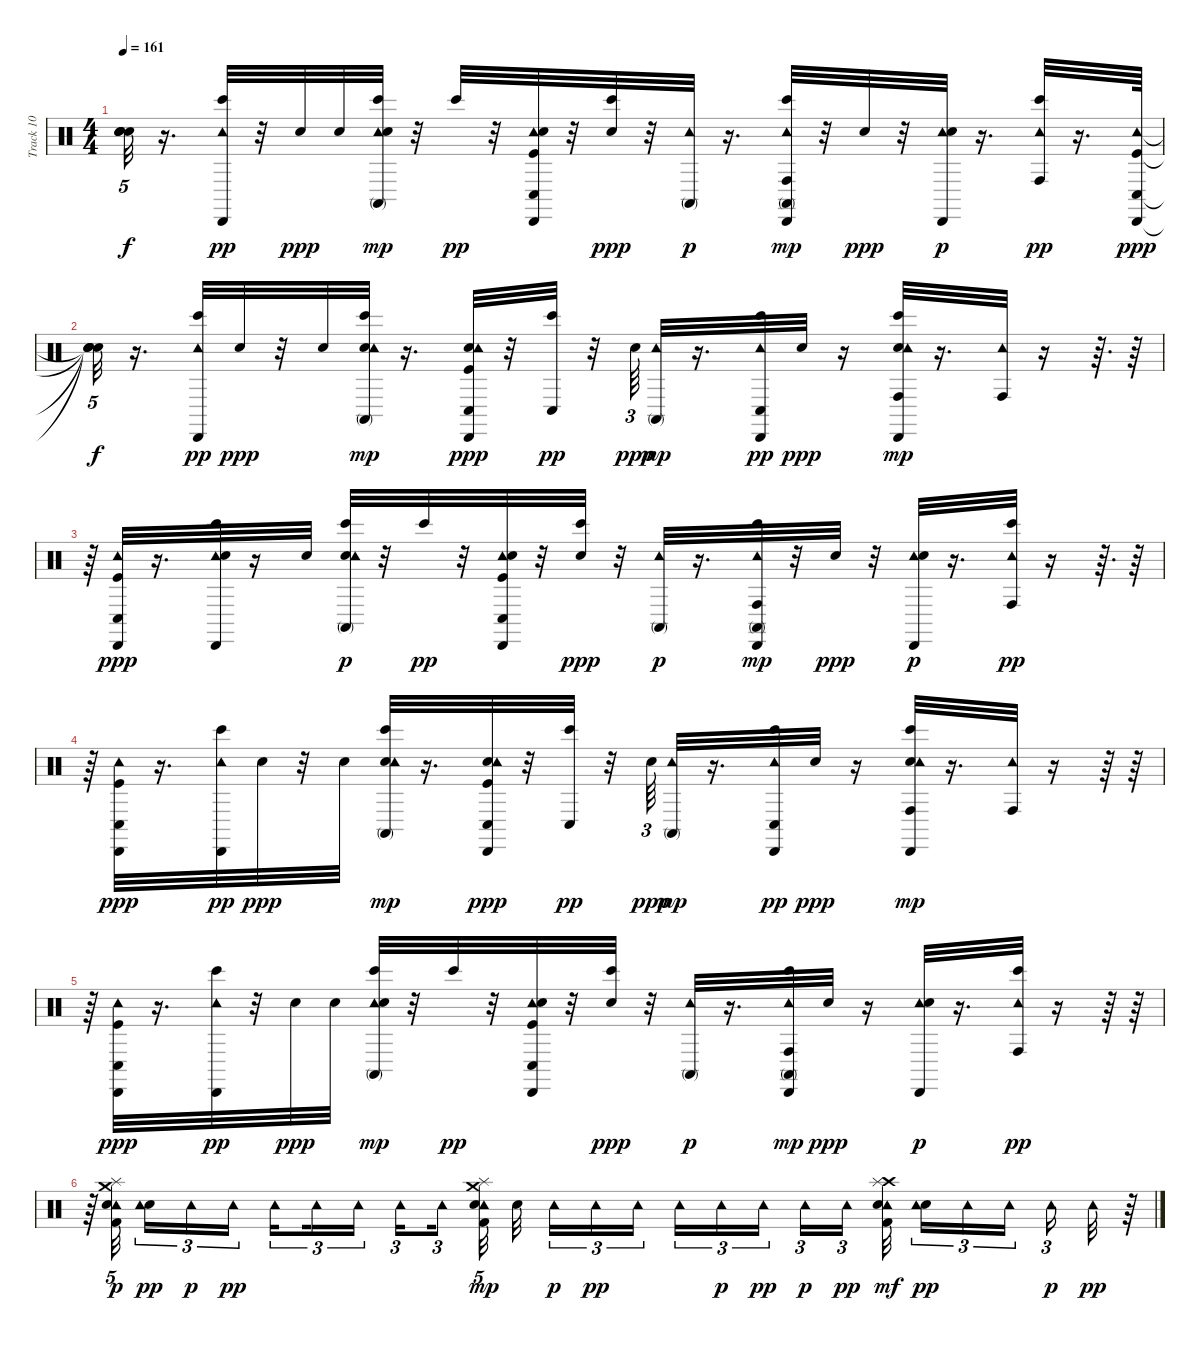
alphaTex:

\track ("Track 10" "Track 10") {instrument percussion}
\staff {score}
\articulation defaults
\ts (4 4)
\tempo 161
\clef neutral
\ks c
("Snare (hit)"{t} "Snare (hit)"{t} "Snare (hit)"{t} "Snare (hit)"{t}).32{tu (5 4) dy f} r.16{d} ("Tambourine (hit)" "Cabasa (hit)" "Bongo High (hit)").32{dy pp} r.32 "Electric Snare (hit)".32{dy ppp} "Electric Snare (hit)".32 ("Tambourine (hit)" "Bongo High (hit)" "Conga high (mute)" "Electric Snare (hit)").32{dy mp} r.32 "Bongo High (hit)".32{dy pp} r.32 ("Tambourine (hit)" "Conga low (hit)" "Cabasa (hit)" "Kick (hit)" "Electric Snare (hit)").32 r.32 ("Bongo High (hit)" "Electric Snare (hit)").32{dy ppp} r.32 ("Tambourine (hit)" "Conga high (mute)").32{dy p} r.16{d} ("Tambourine (hit)" "Cabasa (hit)" "Bongo High (hit)" "Conga high (mute)" "Conga high (hit)").32{dy mp} r.32 "Electric Snare (hit)".32{dy ppp} r.32 ("Tambourine (hit)" "Cabasa (hit)" "Electric Snare (hit)").32{dy p} r.16{d} ("Tambourine (hit)" "Conga high (hit)" "Bongo High (hit)").32{dy pp} r.16{d} ("Kick (hit)" "Tambourine (hit)" "Cabasa (hit)" "Conga low (hit)").64{dy ppp} |
("Snare (hit)"{t} "Snare (hit)"{t} "Snare (hit)"{t} "Snare (hit)"{t}).32{tu (5 4) dy f} r.16{d} ("Tambourine (hit)" "Cabasa (hit)" "Bongo High (hit)").32{dy pp} "Electric Snare (hit)".32{dy ppp} r.32 "Electric Snare (hit)".32 ("Electric Snare (hit)" "Tambourine (hit)" "Bongo High (hit)" "Conga high (mute)").32{dy mp} r.16{d} ("Kick (hit)" "Electric Snare (hit)" "Tambourine (hit)" "Cabasa (hit)" "Conga low (hit)").32{dy ppp} r.32 ("Bongo High (hit)" "Conga low (hit)").32{dy pp} r.32 "Electric Snare (hit)".64{tu (3 2) dy ppp} ("Tambourine (hit)" "Conga high (mute)").32{dy mp} r.16{d} ("Bongo High (hit)" "Tambourine (hit)" "Cabasa (hit)" "Conga low (hit)").32{dy pp} "Electric Snare (hit)".32{dy ppp} r.16 ("Electric Snare (hit)" "Bongo High (hit)" "Tambourine (hit)" "Cabasa (hit)" "Conga high (hit)").32{dy mp} r.16{d} ("Tambourine (hit)" "Conga high (hit)").32 r.16 r.64{d} r.64 |
r.64 ("Kick (hit)" "Tambourine (hit)" "Cabasa (hit)" "Conga low (hit)").32{dy ppp} r.16{d} ("Tambourine (hit)" "Cabasa (hit)" "Bongo High (hit)" "Electric Snare (hit)").32 r.16 "Electric Snare (hit)".32 ("Electric Snare (hit)" "Tambourine (hit)" "Conga high (mute)" "Bongo High (hit)").32{dy p} r.32 "Bongo High (hit)".32{dy pp} r.32 ("Tambourine (hit)" "Conga low (hit)" "Cabasa (hit)" "Kick (hit)" "Electric Snare (hit)").32 r.32 ("Bongo High (hit)" "Electric Snare (hit)").32{dy ppp} r.32 ("Tambourine (hit)" "Conga high (mute)").32{dy p} r.16{d} ("Tambourine (hit)" "Cabasa (hit)" "Bongo High (hit)" "Conga high (mute)" "Conga high (hit)").32{dy mp} r.32 "Electric Snare (hit)".32{dy ppp} r.32 ("Tambourine (hit)" "Cabasa (hit)" "Electric Snare (hit)").32{dy p} r.16{d} ("Tambourine (hit)" "Conga high (hit)" "Bongo High (hit)").32{dy pp} r.16 r.64{d} r.64 |
r.64 ("Kick (hit)" "Tambourine (hit)" "Cabasa (hit)" "Conga low (hit)").32{dy ppp} r.16{d} ("Tambourine (hit)" "Cabasa (hit)" "Bongo High (hit)").32{dy pp} "Electric Snare (hit)".32{dy ppp} r.32 "Electric Snare (hit)".32 ("Electric Snare (hit)" "Tambourine (hit)" "Bongo High (hit)" "Conga high (mute)").32{dy mp} r.16{d} ("Kick (hit)" "Electric Snare (hit)" "Tambourine (hit)" "Cabasa (hit)" "Conga low (hit)").32{dy ppp} r.32 ("Bongo High (hit)" "Conga low (hit)").32{dy pp} r.32 "Electric Snare (hit)".64{tu (3 2) dy ppp} ("Tambourine (hit)" "Conga high (mute)").32{dy mp} r.16{d} ("Bongo High (hit)" "Tambourine (hit)" "Cabasa (hit)" "Conga low (hit)").32{dy pp} "Electric Snare (hit)".32{dy ppp} r.16 ("Electric Snare (hit)" "Bongo High (hit)" "Tambourine (hit)" "Cabasa (hit)" "Conga high (hit)").32{dy mp} r.16{d} ("Tambourine (hit)" "Conga high (hit)").32 r.16 r.64 r.64 |
r.64 ("Kick (hit)" "Tambourine (hit)" "Cabasa (hit)" "Conga low (hit)").32{dy ppp} r.16{d} ("Tambourine (hit)" "Cabasa (hit)" "Bongo High (hit)").32{dy pp} r.32 "Electric Snare (hit)".32{dy ppp} "Electric Snare (hit)".32 ("Tambourine (hit)" "Bongo High (hit)" "Conga high (mute)" "Electric Snare (hit)").32{dy mp} r.32 "Bongo High (hit)".32{dy pp} r.32 ("Tambourine (hit)" "Conga low (hit)" "Cabasa (hit)" "Kick (hit)" "Electric Snare (hit)").32 r.32 ("Bongo High (hit)" "Electric Snare (hit)").32{dy ppp} r.32 ("Tambourine (hit)" "Conga high (mute)").32{dy p} r.16{d} ("Tambourine (hit)" "Cabasa (hit)" "Bongo High (hit)" "Conga high (mute)" "Conga high (hit)").32{dy mp} "Electric Snare (hit)".32{dy ppp} r.16 ("Tambourine (hit)" "Cabasa (hit)" "Electric Snare (hit)").32{dy p} r.16{d} ("Tambourine (hit)" "Conga high (hit)" "Bongo High (hit)").32{dy pp} r.16 r.64 r.64 |
r.64 ("Tambourine (hit)" "Splash (hit)" "Kick (hit) 2" "Electric Snare (hit)" "Crash medium (hit)").32{tu (5 4) dy p} ("Electric Snare (hit)" "Tambourine (hit)").16{tu (3 2) dy pp} "Tambourine (hit)".16{tu (3 2) dy p} "Tambourine (hit)".16{tu (3 2) dy pp} "Tambourine (hit)".16{tu (3 2) beam splitsecondary} "Tambourine (hit)".16{tu (3 2)} "Tambourine (hit)".16{tu (3 2)} "Tambourine (hit)".16{tu (3 2) beam splitsecondary} "Tambourine (hit)".16{tu (3 2)} ("Tambourine (hit)" "Crash medium (hit)" "Electric Snare (hit)" "Splash (hit)" "Kick (hit) 2").32{tu (5 4) dy mp beam splitsecondary} "Electric Snare (hit)".32{beam splitsecondary} "Tambourine (hit)".16{tu (3 2) dy p} "Tambourine (hit)".16{tu (3 2) dy pp} "Tambourine (hit)".16{tu (3 2) beam splitsecondary} "Tambourine (hit)".16{tu (3 2)} "Tambourine (hit)".16{tu (3 2) dy p} "Tambourine (hit)".16{tu (3 2) dy pp beam splitsecondary} "Tambourine (hit)".16{tu (3 2) dy p} "Tambourine (hit)".16{tu (3 2) dy pp} ("Tambourine (hit)" "Crash high (hit)" "Electric Snare (hit)" "Kick (hit) 2" "Splash (hit)").32{dy mf beam splitsecondary} ("Electric Snare (hit)" "Tambourine (hit)").16{tu (3 2) dy pp} "Tambourine (hit)".16{tu (3 2)} "Tambourine (hit)".16{tu (3 2) beam splitsecondary} "Tambourine (hit)".16{tu (3 2) dy p} "Tambourine (hit)".32{dy pp} r.64
